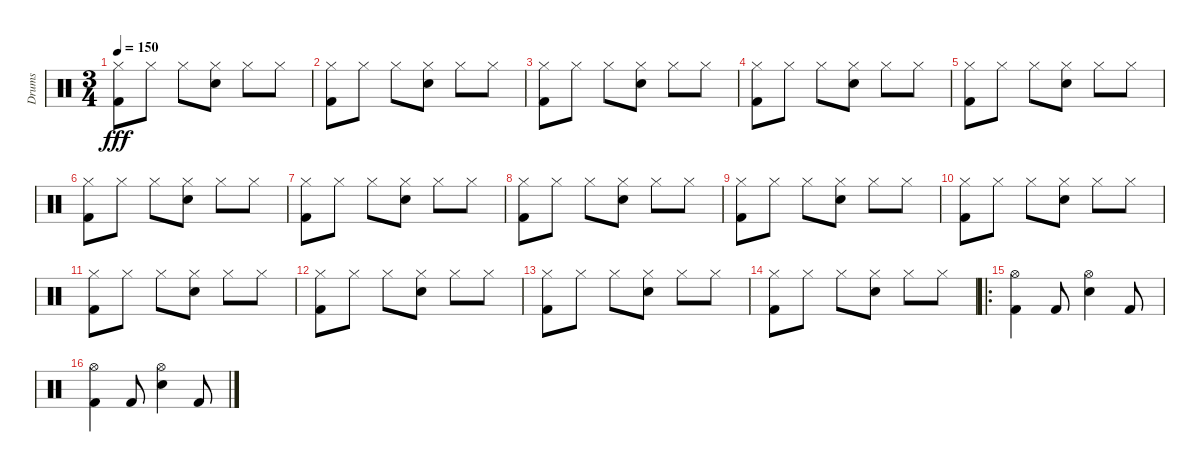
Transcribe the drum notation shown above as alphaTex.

\track ("Drums" "Drums") {instrument percussion}
\staff {score}
\articulation defaults
\ts (3 4)
\tempo 150
\clef neutral
\ks c
("Hi-Hat (closed)" "Kick (hit) 2").8{dy fff} "Hi-Hat (closed)".8 "Hi-Hat (closed)".8 ("Hi-Hat (closed)" "Snare (hit) 2").8 "Hi-Hat (closed)".8 "Hi-Hat (closed)".8 |
("Hi-Hat (closed)" "Kick (hit) 2").8 "Hi-Hat (closed)".8 "Hi-Hat (closed)".8 ("Hi-Hat (closed)" "Snare (hit) 2").8 "Hi-Hat (closed)".8 "Hi-Hat (closed)".8 |
("Hi-Hat (closed)" "Kick (hit) 2").8 "Hi-Hat (closed)".8 "Hi-Hat (closed)".8 ("Hi-Hat (closed)" "Snare (hit) 2").8 "Hi-Hat (closed)".8 "Hi-Hat (closed)".8 |
("Hi-Hat (closed)" "Kick (hit) 2").8 "Hi-Hat (closed)".8 "Hi-Hat (closed)".8 ("Hi-Hat (closed)" "Snare (hit) 2").8 "Hi-Hat (closed)".8 "Hi-Hat (closed)".8 |
("Hi-Hat (closed)" "Kick (hit) 2").8 "Hi-Hat (closed)".8 "Hi-Hat (closed)".8 ("Hi-Hat (closed)" "Snare (hit) 2").8 "Hi-Hat (closed)".8 "Hi-Hat (closed)".8 |
("Hi-Hat (closed)" "Kick (hit) 2").8 "Hi-Hat (closed)".8 "Hi-Hat (closed)".8 ("Hi-Hat (closed)" "Snare (hit) 2").8 "Hi-Hat (closed)".8 "Hi-Hat (closed)".8 |
("Hi-Hat (closed)" "Kick (hit) 2").8 "Hi-Hat (closed)".8 "Hi-Hat (closed)".8 ("Hi-Hat (closed)" "Snare (hit) 2").8 "Hi-Hat (closed)".8 "Hi-Hat (closed)".8 |
("Hi-Hat (closed)" "Kick (hit) 2").8 "Hi-Hat (closed)".8 "Hi-Hat (closed)".8 ("Hi-Hat (closed)" "Snare (hit) 2").8 "Hi-Hat (closed)".8 "Hi-Hat (closed)".8 |
("Hi-Hat (closed)" "Kick (hit) 2").8 "Hi-Hat (closed)".8 "Hi-Hat (closed)".8 ("Hi-Hat (closed)" "Snare (hit) 2").8 "Hi-Hat (closed)".8 "Hi-Hat (closed)".8 |
("Hi-Hat (closed)" "Kick (hit) 2").8 "Hi-Hat (closed)".8 "Hi-Hat (closed)".8 ("Hi-Hat (closed)" "Snare (hit) 2").8 "Hi-Hat (closed)".8 "Hi-Hat (closed)".8 |
("Hi-Hat (closed)" "Kick (hit) 2").8 "Hi-Hat (closed)".8 "Hi-Hat (closed)".8 ("Hi-Hat (closed)" "Snare (hit) 2").8 "Hi-Hat (closed)".8 "Hi-Hat (closed)".8 |
("Hi-Hat (closed)" "Kick (hit) 2").8 "Hi-Hat (closed)".8 "Hi-Hat (closed)".8 ("Hi-Hat (closed)" "Snare (hit) 2").8 "Hi-Hat (closed)".8 "Hi-Hat (closed)".8 |
("Hi-Hat (closed)" "Kick (hit) 2").8 "Hi-Hat (closed)".8 "Hi-Hat (closed)".8 ("Hi-Hat (closed)" "Snare (hit) 2").8 "Hi-Hat (closed)".8 "Hi-Hat (closed)".8 |
("Hi-Hat (closed)" "Kick (hit) 2").8 "Hi-Hat (closed)".8 "Hi-Hat (closed)".8 ("Hi-Hat (closed)" "Snare (hit) 2").8 "Hi-Hat (closed)".8 "Hi-Hat (closed)".8 |
\ro
("Hi-Hat (open)" "Kick (hit) 2").4 "Kick (hit) 2".8 ("Hi-Hat (open)" "Snare (hit) 2").4 "Kick (hit) 2".8 |
("Hi-Hat (open)" "Kick (hit) 2").4 "Kick (hit) 2".8 ("Hi-Hat (open)" "Snare (hit) 2").4 "Kick (hit) 2".8
